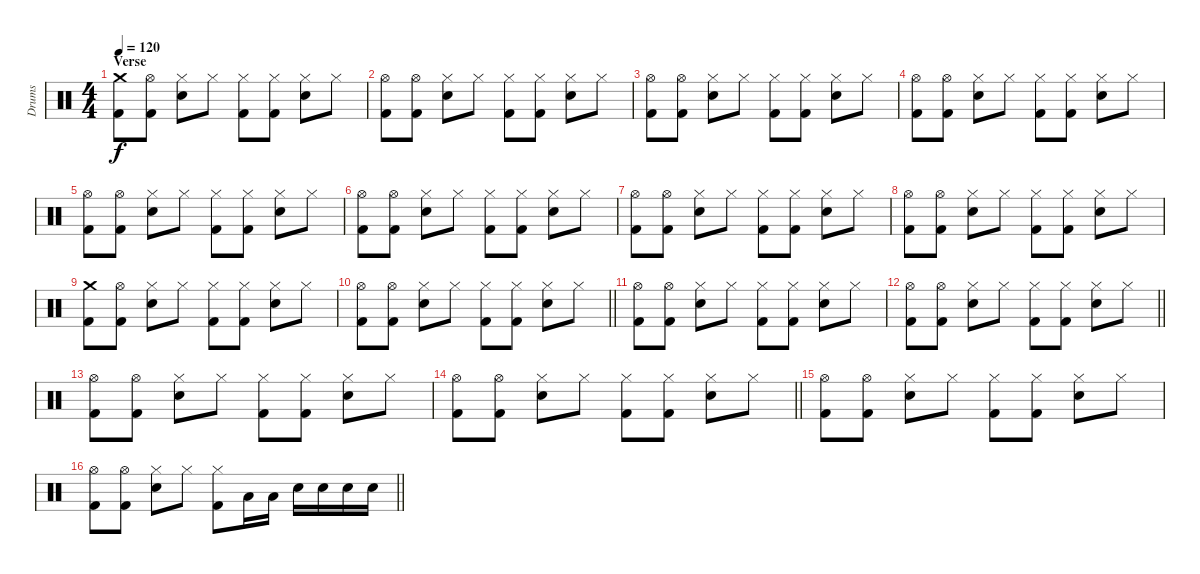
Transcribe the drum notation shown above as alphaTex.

\track ("Drums" "Drums") {instrument percussion}
\staff {score}
\articulation defaults
\ts (4 4)
\section ("" "Verse")
\tempo 120
\clef neutral
\ks c
("Crash medium (hit)" "Kick (hit) 2").8{dy f} ("Hi-Hat (open)" "Kick (hit) 2").8 ("Hi-Hat (closed)" "Electric Snare (hit)").8 "Hi-Hat (closed)".8 ("Hi-Hat (closed)" "Kick (hit) 2").8 ("Hi-Hat (closed)" "Kick (hit) 2").8 ("Hi-Hat (closed)" "Electric Snare (hit)").8 "Hi-Hat (closed)".8 |
("Hi-Hat (open)" "Kick (hit) 2").8 ("Hi-Hat (open)" "Kick (hit) 2").8 ("Hi-Hat (closed)" "Electric Snare (hit)").8 "Hi-Hat (closed)".8 ("Hi-Hat (closed)" "Kick (hit) 2").8 ("Hi-Hat (closed)" "Kick (hit) 2").8 ("Hi-Hat (closed)" "Electric Snare (hit)").8 "Hi-Hat (closed)".8 |
("Hi-Hat (open)" "Kick (hit) 2").8 ("Hi-Hat (open)" "Kick (hit) 2").8 ("Hi-Hat (closed)" "Electric Snare (hit)").8 "Hi-Hat (closed)".8 ("Hi-Hat (closed)" "Kick (hit) 2").8 ("Hi-Hat (closed)" "Kick (hit) 2").8 ("Hi-Hat (closed)" "Electric Snare (hit)").8 "Hi-Hat (closed)".8 |
("Hi-Hat (open)" "Kick (hit) 2").8 ("Hi-Hat (open)" "Kick (hit) 2").8 ("Hi-Hat (closed)" "Electric Snare (hit)").8 "Hi-Hat (closed)".8 ("Hi-Hat (closed)" "Kick (hit) 2").8 ("Hi-Hat (closed)" "Kick (hit) 2").8 ("Hi-Hat (closed)" "Electric Snare (hit)").8 "Hi-Hat (closed)".8 |
("Hi-Hat (open)" "Kick (hit) 2").8 ("Hi-Hat (open)" "Kick (hit) 2").8 ("Hi-Hat (closed)" "Electric Snare (hit)").8 "Hi-Hat (closed)".8 ("Hi-Hat (closed)" "Kick (hit) 2").8 ("Hi-Hat (closed)" "Kick (hit) 2").8 ("Hi-Hat (closed)" "Electric Snare (hit)").8 "Hi-Hat (closed)".8 |
("Hi-Hat (open)" "Kick (hit) 2").8 ("Hi-Hat (open)" "Kick (hit) 2").8 ("Hi-Hat (closed)" "Electric Snare (hit)").8 "Hi-Hat (closed)".8 ("Hi-Hat (closed)" "Kick (hit) 2").8 ("Hi-Hat (closed)" "Kick (hit) 2").8 ("Hi-Hat (closed)" "Electric Snare (hit)").8 "Hi-Hat (closed)".8 |
("Hi-Hat (open)" "Kick (hit) 2").8 ("Hi-Hat (open)" "Kick (hit) 2").8 ("Hi-Hat (closed)" "Electric Snare (hit)").8 "Hi-Hat (closed)".8 ("Hi-Hat (closed)" "Kick (hit) 2").8 ("Hi-Hat (closed)" "Kick (hit) 2").8 ("Hi-Hat (closed)" "Electric Snare (hit)").8 "Hi-Hat (closed)".8 |
("Hi-Hat (open)" "Kick (hit) 2").8 ("Hi-Hat (open)" "Kick (hit) 2").8 ("Hi-Hat (closed)" "Electric Snare (hit)").8 "Hi-Hat (closed)".8 ("Hi-Hat (closed)" "Kick (hit) 2").8 ("Hi-Hat (closed)" "Kick (hit) 2").8 ("Hi-Hat (closed)" "Electric Snare (hit)").8 "Hi-Hat (closed)".8 |
("Crash medium (hit)" "Kick (hit) 2").8 ("Hi-Hat (open)" "Kick (hit) 2").8 ("Hi-Hat (closed)" "Electric Snare (hit)").8 "Hi-Hat (closed)".8 ("Hi-Hat (closed)" "Kick (hit) 2").8 ("Hi-Hat (closed)" "Kick (hit) 2").8 ("Hi-Hat (closed)" "Electric Snare (hit)").8 "Hi-Hat (closed)".8 |
\barLineRight lightlight
("Hi-Hat (open)" "Kick (hit) 2").8 ("Hi-Hat (open)" "Kick (hit) 2").8 ("Hi-Hat (closed)" "Electric Snare (hit)").8 "Hi-Hat (closed)".8 ("Hi-Hat (closed)" "Kick (hit) 2").8 ("Hi-Hat (closed)" "Kick (hit) 2").8 ("Hi-Hat (closed)" "Electric Snare (hit)").8 "Hi-Hat (closed)".8 |
("Hi-Hat (open)" "Kick (hit) 2").8 ("Hi-Hat (open)" "Kick (hit) 2").8 ("Hi-Hat (closed)" "Electric Snare (hit)").8 "Hi-Hat (closed)".8 ("Hi-Hat (closed)" "Kick (hit) 2").8 ("Hi-Hat (closed)" "Kick (hit) 2").8 ("Hi-Hat (closed)" "Electric Snare (hit)").8 "Hi-Hat (closed)".8 |
\barLineRight lightlight
("Hi-Hat (open)" "Kick (hit) 2").8 ("Hi-Hat (open)" "Kick (hit) 2").8 ("Hi-Hat (closed)" "Electric Snare (hit)").8 "Hi-Hat (closed)".8 ("Hi-Hat (closed)" "Kick (hit) 2").8 ("Hi-Hat (closed)" "Kick (hit) 2").8 ("Hi-Hat (closed)" "Electric Snare (hit)").8 "Hi-Hat (closed)".8 |
("Hi-Hat (open)" "Kick (hit) 2").8 ("Hi-Hat (open)" "Kick (hit) 2").8 ("Hi-Hat (closed)" "Electric Snare (hit)").8 "Hi-Hat (closed)".8 ("Hi-Hat (closed)" "Kick (hit) 2").8 ("Hi-Hat (closed)" "Kick (hit) 2").8 ("Hi-Hat (closed)" "Electric Snare (hit)").8 "Hi-Hat (closed)".8 |
\barLineRight lightlight
("Hi-Hat (open)" "Kick (hit) 2").8 ("Hi-Hat (open)" "Kick (hit) 2").8 ("Hi-Hat (closed)" "Electric Snare (hit)").8 "Hi-Hat (closed)".8 ("Hi-Hat (closed)" "Kick (hit) 2").8 ("Hi-Hat (closed)" "Kick (hit) 2").8 ("Hi-Hat (closed)" "Electric Snare (hit)").8 "Hi-Hat (closed)".8 |
("Hi-Hat (open)" "Kick (hit) 2").8 ("Hi-Hat (open)" "Kick (hit) 2").8 ("Hi-Hat (closed)" "Electric Snare (hit)").8 "Hi-Hat (closed)".8 ("Hi-Hat (closed)" "Kick (hit) 2").8 ("Hi-Hat (closed)" "Kick (hit) 2").8 ("Hi-Hat (closed)" "Electric Snare (hit)").8 "Hi-Hat (closed)".8 |
\barLineRight lightlight
("Hi-Hat (open)" "Kick (hit) 2").8 ("Hi-Hat (open)" "Kick (hit) 2").8 ("Hi-Hat (closed)" "Electric Snare (hit)").8 "Hi-Hat (closed)".8 ("Hi-Hat (closed)" "Kick (hit) 2").8 "Low Tom (hit)".16 "Low Tom (hit)".16 "Snare (hit) 2".16 "Snare (hit) 2".16 "Snare (hit) 2".16 "Snare (hit) 2".16
